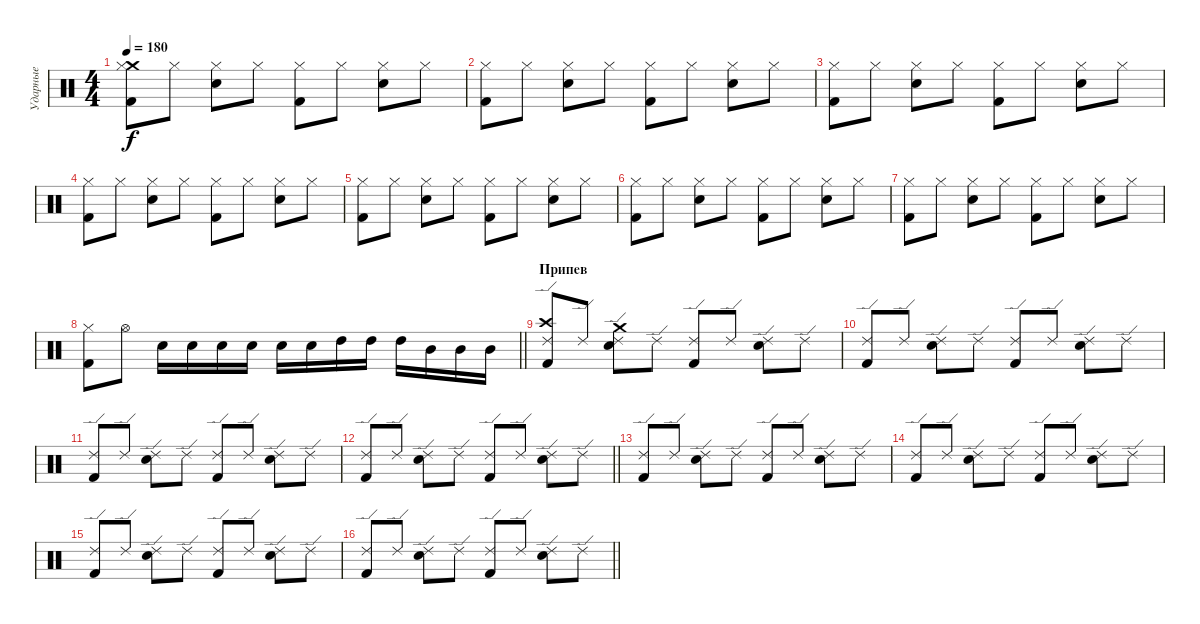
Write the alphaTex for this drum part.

\track ("Ударные" "Ударные") {instrument percussion}
\staff {score}
\articulation defaults
\ts (4 4)
\tempo 180
\clef neutral
\ks c
("Crash medium (hit)" "Hi-Hat (closed)" "Kick (hit) 2").8{dy f} "Hi-Hat (closed)".8 ("Hi-Hat (closed)" "Electric Snare (hit)").8 "Hi-Hat (closed)".8 ("Hi-Hat (closed)" "Kick (hit) 2").8 "Hi-Hat (closed)".8 ("Hi-Hat (closed)" "Electric Snare (hit)").8 "Hi-Hat (closed)".8 |
("Hi-Hat (closed)" "Kick (hit) 2").8 "Hi-Hat (closed)".8 ("Hi-Hat (closed)" "Electric Snare (hit)").8 "Hi-Hat (closed)".8 ("Hi-Hat (closed)" "Kick (hit) 2").8 "Hi-Hat (closed)".8 ("Hi-Hat (closed)" "Electric Snare (hit)").8 "Hi-Hat (closed)".8 |
("Hi-Hat (closed)" "Kick (hit) 2").8 "Hi-Hat (closed)".8 ("Hi-Hat (closed)" "Electric Snare (hit)").8 "Hi-Hat (closed)".8 ("Hi-Hat (closed)" "Kick (hit) 2").8 "Hi-Hat (closed)".8 ("Hi-Hat (closed)" "Electric Snare (hit)").8 "Hi-Hat (closed)".8 |
("Hi-Hat (closed)" "Kick (hit) 2").8 "Hi-Hat (closed)".8 ("Hi-Hat (closed)" "Electric Snare (hit)").8 "Hi-Hat (closed)".8 ("Hi-Hat (closed)" "Kick (hit) 2").8 "Hi-Hat (closed)".8 ("Hi-Hat (closed)" "Electric Snare (hit)").8 "Hi-Hat (closed)".8 |
("Hi-Hat (closed)" "Kick (hit) 2").8 "Hi-Hat (closed)".8 ("Hi-Hat (closed)" "Electric Snare (hit)").8 "Hi-Hat (closed)".8 ("Hi-Hat (closed)" "Kick (hit) 2").8 "Hi-Hat (closed)".8 ("Hi-Hat (closed)" "Electric Snare (hit)").8 "Hi-Hat (closed)".8 |
("Hi-Hat (closed)" "Kick (hit) 2").8 "Hi-Hat (closed)".8 ("Hi-Hat (closed)" "Electric Snare (hit)").8 "Hi-Hat (closed)".8 ("Hi-Hat (closed)" "Kick (hit) 2").8 "Hi-Hat (closed)".8 ("Hi-Hat (closed)" "Electric Snare (hit)").8 "Hi-Hat (closed)".8 |
("Hi-Hat (closed)" "Kick (hit) 2").8 "Hi-Hat (closed)".8 ("Hi-Hat (closed)" "Electric Snare (hit)").8 "Hi-Hat (closed)".8 ("Hi-Hat (closed)" "Kick (hit) 2").8 "Hi-Hat (closed)".8 ("Hi-Hat (closed)" "Electric Snare (hit)").8 "Hi-Hat (closed)".8 |
\barLineRight lightlight
("Hi-Hat (closed)" "Kick (hit) 2").8 "Hi-Hat (open)".8 "Electric Snare (hit)".16 "Electric Snare (hit)".16 "Electric Snare (hit)".16 "Electric Snare (hit)".16 "Electric Snare (hit)".16 "Electric Snare (hit)".16 "High Tom (hit)".16 "High Tom (hit)".16 "High Tom (hit)".16 "Mid Tom (hit)".16 "Mid Tom (hit)".16 "Mid Tom (hit)".16 |
\section ("" "Припев")
("Crash high (hit)" "Ride (edge) 2" "Kick (hit) 2").8 "Ride (edge) 2".8 ("Crash medium (hit)" "Ride (edge) 2" "Electric Snare (hit)").8 "Ride (edge) 2".8 ("Ride (edge) 2" "Kick (hit) 2").8 "Ride (edge) 2".8 ("Ride (edge) 2" "Electric Snare (hit)").8 "Ride (edge) 2".8 |
("Ride (edge) 2" "Kick (hit) 2").8 "Ride (edge) 2".8 ("Ride (edge) 2" "Electric Snare (hit)").8 "Ride (edge) 2".8 ("Ride (edge) 2" "Kick (hit) 2").8 "Ride (edge) 2".8 ("Ride (edge) 2" "Electric Snare (hit)").8 "Ride (edge) 2".8 |
("Ride (edge) 2" "Kick (hit) 2").8 "Ride (edge) 2".8 ("Ride (edge) 2" "Electric Snare (hit)").8 "Ride (edge) 2".8 ("Ride (edge) 2" "Kick (hit) 2").8 "Ride (edge) 2".8 ("Ride (edge) 2" "Electric Snare (hit)").8 "Ride (edge) 2".8 |
\barLineRight lightlight
("Ride (edge) 2" "Kick (hit) 2").8 "Ride (edge) 2".8 ("Ride (edge) 2" "Electric Snare (hit)").8 "Ride (edge) 2".8 ("Ride (edge) 2" "Kick (hit) 2").8 "Ride (edge) 2".8 ("Ride (edge) 2" "Electric Snare (hit)").8 "Ride (edge) 2".8 |
("Ride (edge) 2" "Kick (hit) 2").8 "Ride (edge) 2".8 ("Ride (edge) 2" "Electric Snare (hit)").8 "Ride (edge) 2".8 ("Ride (edge) 2" "Kick (hit) 2").8 "Ride (edge) 2".8 ("Ride (edge) 2" "Electric Snare (hit)").8 "Ride (edge) 2".8 |
("Ride (edge) 2" "Kick (hit) 2").8 "Ride (edge) 2".8 ("Ride (edge) 2" "Electric Snare (hit)").8 "Ride (edge) 2".8 ("Ride (edge) 2" "Kick (hit) 2").8 "Ride (edge) 2".8 ("Ride (edge) 2" "Electric Snare (hit)").8 "Ride (edge) 2".8 |
("Ride (edge) 2" "Kick (hit) 2").8 "Ride (edge) 2".8 ("Ride (edge) 2" "Electric Snare (hit)").8 "Ride (edge) 2".8 ("Ride (edge) 2" "Kick (hit) 2").8 "Ride (edge) 2".8 ("Ride (edge) 2" "Electric Snare (hit)").8 "Ride (edge) 2".8 |
\barLineRight lightlight
("Ride (edge) 2" "Kick (hit) 2").8 "Ride (edge) 2".8 ("Ride (edge) 2" "Electric Snare (hit)").8 "Ride (edge) 2".8 ("Ride (edge) 2" "Kick (hit) 2").8 "Ride (edge) 2".8 ("Ride (edge) 2" "Electric Snare (hit)").8 "Ride (edge) 2".8
